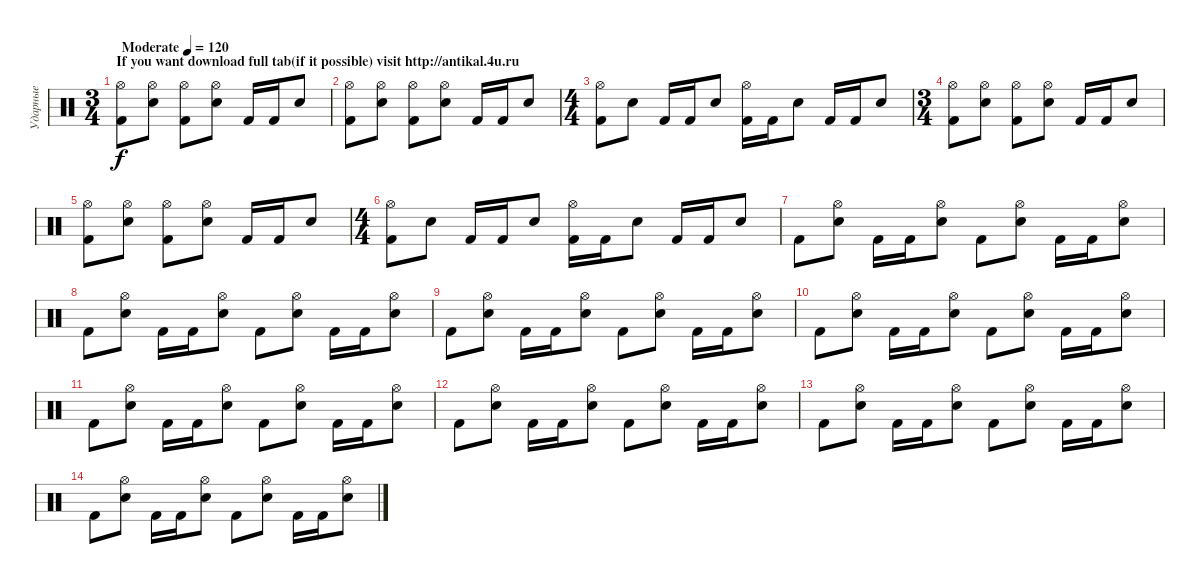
\track ("Ударные" "Ударные") {instrument percussion}
\staff {score}
\articulation defaults
\ts (3 4)
\section ("" "If you want download full tab(if it possible) visit http://antikal.4u.ru")
\tempo (120 "Moderate")
\clef neutral
\ks c
("Kick (hit) 2" "Hi-Hat (open)").8{dy f} ("Electric Snare (hit)" "Hi-Hat (open)").8 ("Kick (hit) 2" "Hi-Hat (open)").8 ("Electric Snare (hit)" "Hi-Hat (open)").8 "Kick (hit) 2".16 "Kick (hit) 2".16 "Electric Snare (hit)".8 |
("Kick (hit) 2" "Hi-Hat (open)").8 ("Electric Snare (hit)" "Hi-Hat (open)").8 ("Kick (hit) 2" "Hi-Hat (open)").8 ("Electric Snare (hit)" "Hi-Hat (open)").8 "Kick (hit) 2".16 "Kick (hit) 2".16 "Electric Snare (hit)".8 |
\ts (4 4)
("Kick (hit) 2" "Hi-Hat (open)").8 "Electric Snare (hit)".8 "Kick (hit) 2".16 "Kick (hit) 2".16 "Electric Snare (hit)".8 ("Kick (hit) 2" "Hi-Hat (open)").16 "Kick (hit) 2".16 "Electric Snare (hit)".8 "Kick (hit) 2".16 "Kick (hit) 2".16 "Electric Snare (hit)".8 |
\ts (3 4)
("Kick (hit) 2" "Hi-Hat (open)").8 ("Electric Snare (hit)" "Hi-Hat (open)").8 ("Kick (hit) 2" "Hi-Hat (open)").8 ("Electric Snare (hit)" "Hi-Hat (open)").8 "Kick (hit) 2".16 "Kick (hit) 2".16 "Electric Snare (hit)".8 |
("Kick (hit) 2" "Hi-Hat (open)").8 ("Electric Snare (hit)" "Hi-Hat (open)").8 ("Kick (hit) 2" "Hi-Hat (open)").8 ("Electric Snare (hit)" "Hi-Hat (open)").8 "Kick (hit) 2".16 "Kick (hit) 2".16 "Electric Snare (hit)".8 |
\ts (4 4)
("Kick (hit) 2" "Hi-Hat (open)").8 "Electric Snare (hit)".8 "Kick (hit) 2".16 "Kick (hit) 2".16 "Electric Snare (hit)".8 ("Kick (hit) 2" "Hi-Hat (open)").16 "Kick (hit) 2".16 "Electric Snare (hit)".8 "Kick (hit) 2".16 "Kick (hit) 2".16 "Electric Snare (hit)".8 |
"Kick (hit) 2".8 ("Electric Snare (hit)" "Hi-Hat (open)").8 "Kick (hit) 2".16 "Kick (hit) 2".16 ("Electric Snare (hit)" "Hi-Hat (open)").8 "Kick (hit) 2".8 ("Electric Snare (hit)" "Hi-Hat (open)").8 "Kick (hit) 2".16 "Kick (hit) 2".16 ("Electric Snare (hit)" "Hi-Hat (open)").8 |
"Kick (hit) 2".8 ("Electric Snare (hit)" "Hi-Hat (open)").8 "Kick (hit) 2".16 "Kick (hit) 2".16 ("Electric Snare (hit)" "Hi-Hat (open)").8 "Kick (hit) 2".8 ("Electric Snare (hit)" "Hi-Hat (open)").8 "Kick (hit) 2".16 "Kick (hit) 2".16 ("Electric Snare (hit)" "Hi-Hat (open)").8 |
"Kick (hit) 2".8 ("Electric Snare (hit)" "Hi-Hat (open)").8 "Kick (hit) 2".16 "Kick (hit) 2".16 ("Electric Snare (hit)" "Hi-Hat (open)").8 "Kick (hit) 2".8 ("Electric Snare (hit)" "Hi-Hat (open)").8 "Kick (hit) 2".16 "Kick (hit) 2".16 ("Electric Snare (hit)" "Hi-Hat (open)").8 |
"Kick (hit) 2".8 ("Electric Snare (hit)" "Hi-Hat (open)").8 "Kick (hit) 2".16 "Kick (hit) 2".16 ("Electric Snare (hit)" "Hi-Hat (open)").8 "Kick (hit) 2".8 ("Electric Snare (hit)" "Hi-Hat (open)").8 "Kick (hit) 2".16 "Kick (hit) 2".16 ("Electric Snare (hit)" "Hi-Hat (open)").8 |
"Kick (hit) 2".8 ("Electric Snare (hit)" "Hi-Hat (open)").8 "Kick (hit) 2".16 "Kick (hit) 2".16 ("Electric Snare (hit)" "Hi-Hat (open)").8 "Kick (hit) 2".8 ("Electric Snare (hit)" "Hi-Hat (open)").8 "Kick (hit) 2".16 "Kick (hit) 2".16 ("Electric Snare (hit)" "Hi-Hat (open)").8 |
"Kick (hit) 2".8 ("Electric Snare (hit)" "Hi-Hat (open)").8 "Kick (hit) 2".16 "Kick (hit) 2".16 ("Electric Snare (hit)" "Hi-Hat (open)").8 "Kick (hit) 2".8 ("Electric Snare (hit)" "Hi-Hat (open)").8 "Kick (hit) 2".16 "Kick (hit) 2".16 ("Electric Snare (hit)" "Hi-Hat (open)").8 |
"Kick (hit) 2".8 ("Electric Snare (hit)" "Hi-Hat (open)").8 "Kick (hit) 2".16 "Kick (hit) 2".16 ("Electric Snare (hit)" "Hi-Hat (open)").8 "Kick (hit) 2".8 ("Electric Snare (hit)" "Hi-Hat (open)").8 "Kick (hit) 2".16 "Kick (hit) 2".16 ("Electric Snare (hit)" "Hi-Hat (open)").8 |
"Kick (hit) 2".8 ("Electric Snare (hit)" "Hi-Hat (open)").8 "Kick (hit) 2".16 "Kick (hit) 2".16 ("Electric Snare (hit)" "Hi-Hat (open)").8 "Kick (hit) 2".8 ("Electric Snare (hit)" "Hi-Hat (open)").8 "Kick (hit) 2".16 "Kick (hit) 2".16 ("Electric Snare (hit)" "Hi-Hat (open)").8
